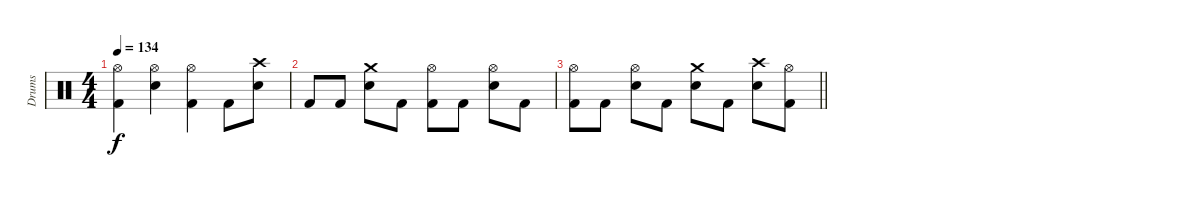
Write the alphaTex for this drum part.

\track ("Drums" "Drums") {instrument percussion}
\staff {score}
\articulation defaults
\ts (4 4)
\tempo 134
\clef neutral
\ks c
("Hi-Hat (open)" "Kick (hit) 2").4{dy f} ("Hi-Hat (open)" "Snare (hit) 2").4 ("Hi-Hat (open)" "Kick (hit) 2").4 "Kick (hit) 2".8 ("Crash high (hit)" "Snare (hit) 2").8 |
"Kick (hit) 2".8 "Kick (hit) 2".8 ("Crash medium (hit)" "Snare (hit) 2").8 "Kick (hit) 2".8 ("Hi-Hat (open)" "Kick (hit) 2").8 "Kick (hit) 2".8 ("Hi-Hat (open)" "Snare (hit) 2").8 "Kick (hit) 2".8 |
\barLineRight lightlight
("Hi-Hat (open)" "Kick (hit) 2").8 "Kick (hit) 2".8 ("Hi-Hat (open)" "Snare (hit) 2").8 "Kick (hit) 2".8 ("Crash medium (hit)" "Snare (hit) 2").8 "Kick (hit) 2".8 ("Crash high (hit)" "Snare (hit) 2").8 ("Hi-Hat (open)" "Kick (hit) 2").8
